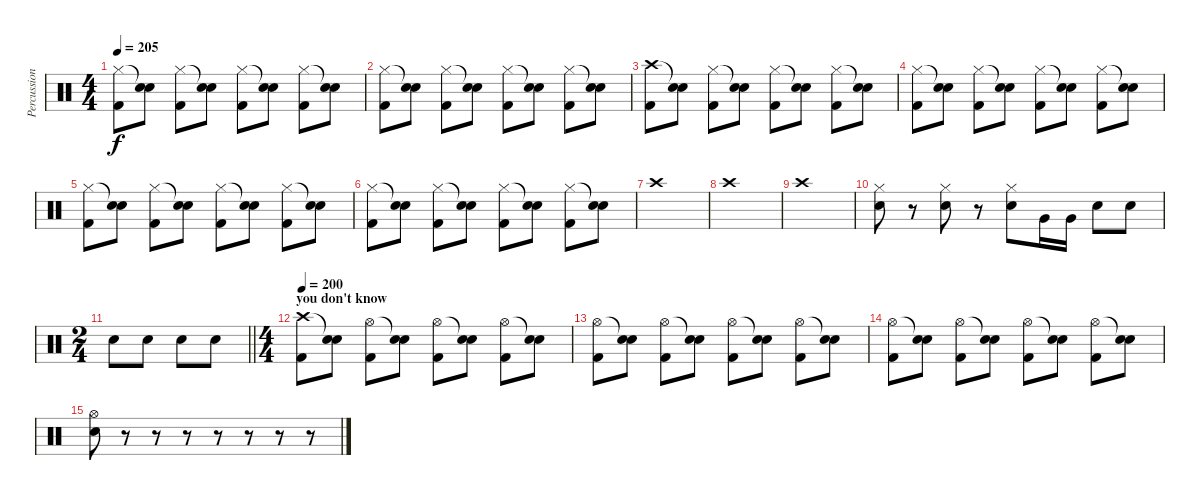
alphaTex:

\track ("Percussioni" "Percussion") {instrument percussion}
\staff {score}
\articulation defaults
\ts (4 4)
\tempo 205
\clef neutral
\ks c
("Hi-Hat (closed)" "Kick (hit) 2").8{dy f} ("Snare (hit)"{t} "Snare (hit) 2").8 ("Hi-Hat (closed)" "Kick (hit) 2").8 ("Snare (hit)"{t} "Snare (hit) 2").8 ("Hi-Hat (closed)" "Kick (hit) 2").8 ("Snare (hit)"{t} "Snare (hit) 2").8 ("Hi-Hat (closed)" "Kick (hit) 2").8 ("Snare (hit)"{t} "Snare (hit) 2").8 |
("Hi-Hat (closed)" "Kick (hit) 2").8 ("Snare (hit)"{t} "Snare (hit) 2").8 ("Hi-Hat (closed)" "Kick (hit) 2").8 ("Snare (hit)"{t} "Snare (hit) 2").8 ("Hi-Hat (closed)" "Kick (hit) 2").8 ("Snare (hit)"{t} "Snare (hit) 2").8 ("Hi-Hat (closed)" "Kick (hit) 2").8 ("Snare (hit)"{t} "Snare (hit) 2").8 |
("Crash high (hit)" "Kick (hit) 2").8 ("Snare (hit)"{t} "Snare (hit) 2").8 ("Hi-Hat (closed)" "Kick (hit) 2").8 ("Snare (hit)"{t} "Snare (hit) 2").8 ("Hi-Hat (closed)" "Kick (hit) 2").8 ("Snare (hit)"{t} "Snare (hit) 2").8 ("Hi-Hat (closed)" "Kick (hit) 2").8 ("Snare (hit)"{t} "Snare (hit) 2").8 |
("Hi-Hat (closed)" "Kick (hit) 2").8 ("Snare (hit)"{t} "Snare (hit) 2").8 ("Hi-Hat (closed)" "Kick (hit) 2").8 ("Snare (hit)"{t} "Snare (hit) 2").8 ("Hi-Hat (closed)" "Kick (hit) 2").8 ("Snare (hit)"{t} "Snare (hit) 2").8 ("Hi-Hat (closed)" "Kick (hit) 2").8 ("Snare (hit)"{t} "Snare (hit) 2").8 |
("Hi-Hat (closed)" "Kick (hit) 2").8 ("Snare (hit)"{t} "Snare (hit) 2").8 ("Hi-Hat (closed)" "Kick (hit) 2").8 ("Snare (hit)"{t} "Snare (hit) 2").8 ("Hi-Hat (closed)" "Kick (hit) 2").8 ("Snare (hit)"{t} "Snare (hit) 2").8 ("Hi-Hat (closed)" "Kick (hit) 2").8 ("Snare (hit)"{t} "Snare (hit) 2").8 |
("Hi-Hat (closed)" "Kick (hit) 2").8 ("Snare (hit)"{t} "Snare (hit) 2").8 ("Hi-Hat (closed)" "Kick (hit) 2").8 ("Snare (hit)"{t} "Snare (hit) 2").8 ("Hi-Hat (closed)" "Kick (hit) 2").8 ("Snare (hit)"{t} "Snare (hit) 2").8 ("Hi-Hat (closed)" "Kick (hit) 2").8 ("Snare (hit)"{t} "Snare (hit) 2").8 |
"Crash high (hit)".1 |
"Crash high (hit)".1 |
"Crash high (hit)".1 |
("Hi-Hat (closed)" "Snare (hit) 2").8 r.8 ("Hi-Hat (closed)" "Snare (hit) 2").8 r.8 ("Hi-Hat (closed)" "Snare (hit) 2").8 "Very Low Tom (hit)".16 "Very Low Tom (hit)".16 "Snare (hit) 2".8 "Snare (hit) 2".8 |
\ts (2 4)
\barLineRight lightlight "Snare (hit) 2".8 "Snare (hit) 2".8 "Snare (hit) 2".8 "Snare (hit) 2".8
|
\ts (4 4)
\section ("" "you don't know")
\tempo 200
("Crash high (hit)" "Kick (hit) 2").8 ("Snare (hit)"{t} "Snare (hit) 2").8 ("Hi-Hat (open)" "Kick (hit) 2").8 ("Snare (hit)"{t} "Snare (hit) 2").8 ("Hi-Hat (open)" "Kick (hit) 2").8 ("Snare (hit)"{t} "Snare (hit) 2").8 ("Hi-Hat (open)" "Kick (hit) 2").8 ("Snare (hit)"{t} "Snare (hit) 2").8 |
("Hi-Hat (open)" "Kick (hit) 2").8 ("Snare (hit)"{t} "Snare (hit) 2").8 ("Hi-Hat (open)" "Kick (hit) 2").8 ("Snare (hit)"{t} "Snare (hit) 2").8 ("Hi-Hat (open)" "Kick (hit) 2").8 ("Snare (hit)"{t} "Snare (hit) 2").8 ("Hi-Hat (open)" "Kick (hit) 2").8 ("Snare (hit)"{t} "Snare (hit) 2").8 |
("Hi-Hat (open)" "Kick (hit) 2").8 ("Snare (hit)"{t} "Snare (hit) 2").8 ("Hi-Hat (open)" "Kick (hit) 2").8 ("Snare (hit)"{t} "Snare (hit) 2").8 ("Hi-Hat (open)" "Kick (hit) 2").8 ("Snare (hit)"{t} "Snare (hit) 2").8 ("Hi-Hat (open)" "Kick (hit) 2").8 ("Snare (hit)"{t} "Snare (hit) 2").8 |
("Hi-Hat (open)" "Snare (hit) 2").8 r.8 r.8 r.8 r.8 r.8 r.8 r.8
